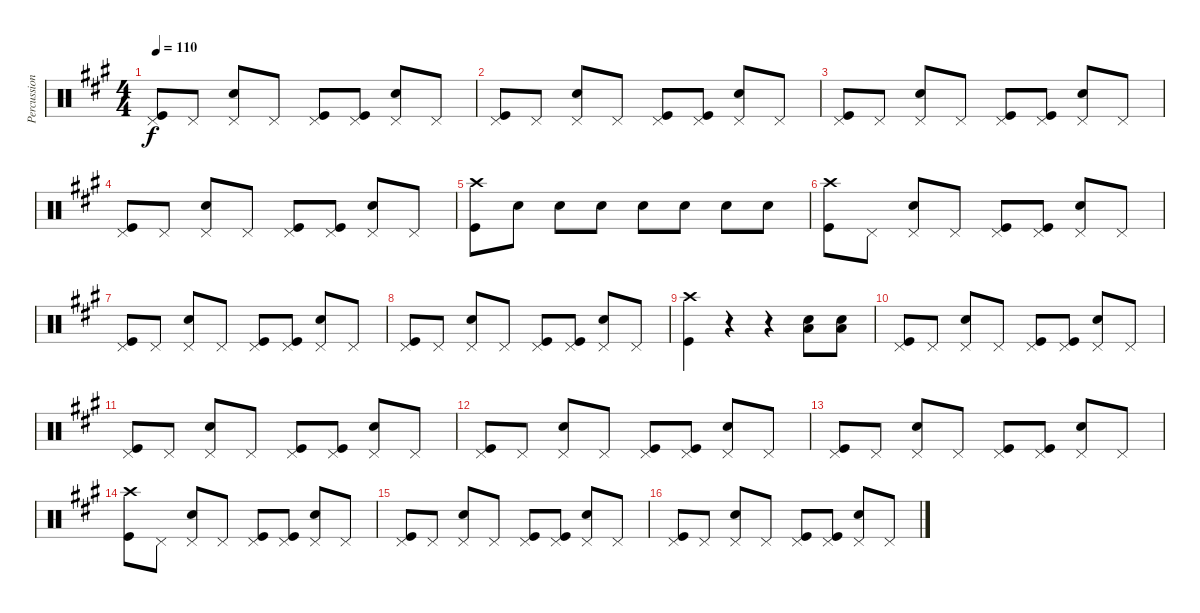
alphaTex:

\track ("Percussion" "Percussion") {instrument percussion}
\staff {score}
\articulation defaults
\ts (4 4)
\tempo 110
\clef neutral
\ks a
("Pedal Hi-Hat (hit)" "Kick (hit)").8{dy f} "Pedal Hi-Hat (hit)".8 ("Pedal Hi-Hat (hit)" "Snare (hit) 2").8 "Pedal Hi-Hat (hit)".8 ("Pedal Hi-Hat (hit)" "Kick (hit)").8 ("Pedal Hi-Hat (hit)" "Kick (hit)").8 ("Pedal Hi-Hat (hit)" "Snare (hit) 2").8 "Pedal Hi-Hat (hit)".8 |
("Pedal Hi-Hat (hit)" "Kick (hit)").8 "Pedal Hi-Hat (hit)".8 ("Pedal Hi-Hat (hit)" "Snare (hit) 2").8 "Pedal Hi-Hat (hit)".8 ("Pedal Hi-Hat (hit)" "Kick (hit)").8 ("Pedal Hi-Hat (hit)" "Kick (hit)").8 ("Pedal Hi-Hat (hit)" "Snare (hit) 2").8 "Pedal Hi-Hat (hit)".8 |
("Pedal Hi-Hat (hit)" "Kick (hit)").8 "Pedal Hi-Hat (hit)".8 ("Pedal Hi-Hat (hit)" "Snare (hit) 2").8 "Pedal Hi-Hat (hit)".8 ("Pedal Hi-Hat (hit)" "Kick (hit)").8 ("Pedal Hi-Hat (hit)" "Kick (hit)").8 ("Pedal Hi-Hat (hit)" "Snare (hit) 2").8 "Pedal Hi-Hat (hit)".8 |
("Pedal Hi-Hat (hit)" "Kick (hit)").8 "Pedal Hi-Hat (hit)".8 ("Pedal Hi-Hat (hit)" "Snare (hit) 2").8 "Pedal Hi-Hat (hit)".8 ("Pedal Hi-Hat (hit)" "Kick (hit)").8 ("Pedal Hi-Hat (hit)" "Kick (hit)").8 ("Pedal Hi-Hat (hit)" "Snare (hit) 2").8 "Pedal Hi-Hat (hit)".8 |
("Crash high (hit)" "Kick (hit)").8 "Snare (hit) 2".8 "Snare (hit) 2".8 "Snare (hit) 2".8 "Snare (hit) 2".8 "Snare (hit) 2".8 "Snare (hit) 2".8 "Snare (hit) 2".8 |
("Crash high (hit)" "Kick (hit)").8 "Pedal Hi-Hat (hit)".8 ("Pedal Hi-Hat (hit)" "Snare (hit) 2").8 "Pedal Hi-Hat (hit)".8 ("Pedal Hi-Hat (hit)" "Kick (hit)").8 ("Pedal Hi-Hat (hit)" "Kick (hit)").8 ("Pedal Hi-Hat (hit)" "Snare (hit) 2").8 "Pedal Hi-Hat (hit)".8 |
("Pedal Hi-Hat (hit)" "Kick (hit)").8 "Pedal Hi-Hat (hit)".8 ("Pedal Hi-Hat (hit)" "Snare (hit) 2").8 "Pedal Hi-Hat (hit)".8 ("Pedal Hi-Hat (hit)" "Kick (hit)").8 ("Pedal Hi-Hat (hit)" "Kick (hit)").8 ("Pedal Hi-Hat (hit)" "Snare (hit) 2").8 "Pedal Hi-Hat (hit)".8 |
("Pedal Hi-Hat (hit)" "Kick (hit)").8 "Pedal Hi-Hat (hit)".8 ("Pedal Hi-Hat (hit)" "Snare (hit) 2").8 "Pedal Hi-Hat (hit)".8 ("Pedal Hi-Hat (hit)" "Kick (hit)").8 ("Pedal Hi-Hat (hit)" "Kick (hit)").8 ("Pedal Hi-Hat (hit)" "Snare (hit) 2").8 "Pedal Hi-Hat (hit)".8 |
("Crash high (hit)" "Kick (hit)").4 r.4 r.4 ("Low Floor Tom (hit)" "Snare (hit) 2").8 ("Low Floor Tom (hit)" "Snare (hit) 2").8 |
("Pedal Hi-Hat (hit)" "Kick (hit)").8 "Pedal Hi-Hat (hit)".8 ("Pedal Hi-Hat (hit)" "Snare (hit) 2").8 "Pedal Hi-Hat (hit)".8 ("Pedal Hi-Hat (hit)" "Kick (hit)").8 ("Pedal Hi-Hat (hit)" "Kick (hit)").8 ("Pedal Hi-Hat (hit)" "Snare (hit) 2").8 "Pedal Hi-Hat (hit)".8 |
("Pedal Hi-Hat (hit)" "Kick (hit)").8 "Pedal Hi-Hat (hit)".8 ("Pedal Hi-Hat (hit)" "Snare (hit) 2").8 "Pedal Hi-Hat (hit)".8 ("Pedal Hi-Hat (hit)" "Kick (hit)").8 ("Pedal Hi-Hat (hit)" "Kick (hit)").8 ("Pedal Hi-Hat (hit)" "Snare (hit) 2").8 "Pedal Hi-Hat (hit)".8 |
("Pedal Hi-Hat (hit)" "Kick (hit)").8 "Pedal Hi-Hat (hit)".8 ("Pedal Hi-Hat (hit)" "Snare (hit) 2").8 "Pedal Hi-Hat (hit)".8 ("Pedal Hi-Hat (hit)" "Kick (hit)").8 ("Pedal Hi-Hat (hit)" "Kick (hit)").8 ("Pedal Hi-Hat (hit)" "Snare (hit) 2").8 "Pedal Hi-Hat (hit)".8 |
("Pedal Hi-Hat (hit)" "Kick (hit)").8 "Pedal Hi-Hat (hit)".8 ("Pedal Hi-Hat (hit)" "Snare (hit) 2").8 "Pedal Hi-Hat (hit)".8 ("Pedal Hi-Hat (hit)" "Kick (hit)").8 ("Pedal Hi-Hat (hit)" "Kick (hit)").8 ("Pedal Hi-Hat (hit)" "Snare (hit) 2").8 "Pedal Hi-Hat (hit)".8 |
("Crash high (hit)" "Kick (hit)").8 "Pedal Hi-Hat (hit)".8 ("Pedal Hi-Hat (hit)" "Snare (hit) 2").8 "Pedal Hi-Hat (hit)".8 ("Pedal Hi-Hat (hit)" "Kick (hit)").8 ("Pedal Hi-Hat (hit)" "Kick (hit)").8 ("Pedal Hi-Hat (hit)" "Snare (hit) 2").8 "Pedal Hi-Hat (hit)".8 |
("Pedal Hi-Hat (hit)" "Kick (hit)").8 "Pedal Hi-Hat (hit)".8 ("Pedal Hi-Hat (hit)" "Snare (hit) 2").8 "Pedal Hi-Hat (hit)".8 ("Pedal Hi-Hat (hit)" "Kick (hit)").8 ("Pedal Hi-Hat (hit)" "Kick (hit)").8 ("Pedal Hi-Hat (hit)" "Snare (hit) 2").8 "Pedal Hi-Hat (hit)".8 |
("Pedal Hi-Hat (hit)" "Kick (hit)").8 "Pedal Hi-Hat (hit)".8 ("Pedal Hi-Hat (hit)" "Snare (hit) 2").8 "Pedal Hi-Hat (hit)".8 ("Pedal Hi-Hat (hit)" "Kick (hit)").8 ("Pedal Hi-Hat (hit)" "Kick (hit)").8 ("Pedal Hi-Hat (hit)" "Snare (hit) 2").8 "Pedal Hi-Hat (hit)".8
